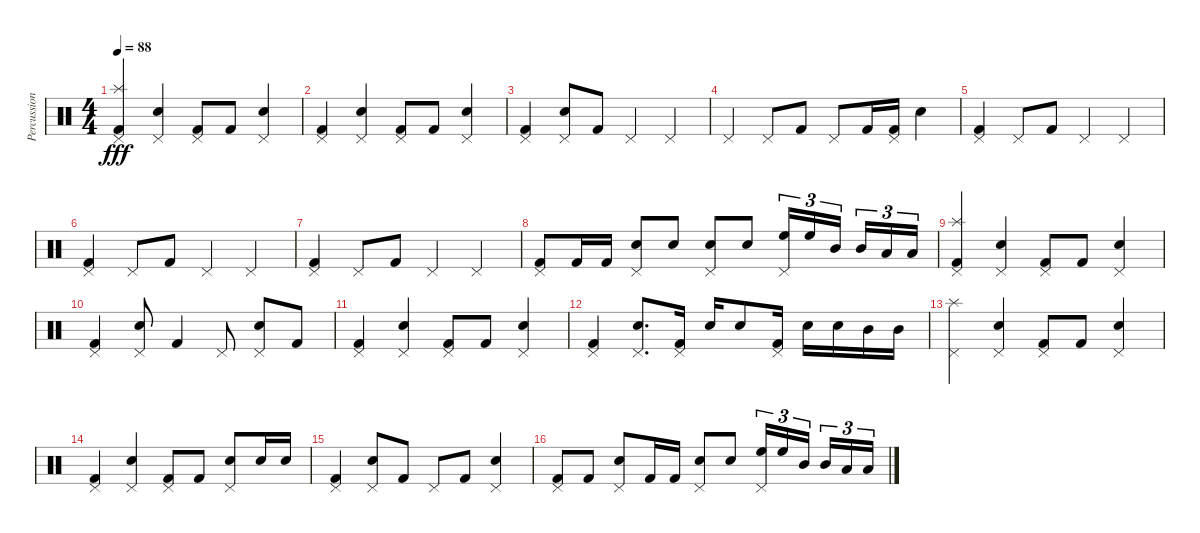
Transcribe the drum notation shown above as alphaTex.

\track ("Percussion" "Percussion") {instrument percussion}
\staff {score}
\articulation defaults
\ts (4 4)
\tempo 88
\clef neutral
\ks c
("Pedal Hi-Hat (hit)" "Splash (hit)" "Kick (hit) 2").4{dy fff} ("Pedal Hi-Hat (hit)" "Snare (hit) 2").4 ("Pedal Hi-Hat (hit)" "Kick (hit) 2").8 "Kick (hit) 2".8 ("Pedal Hi-Hat (hit)" "Snare (hit) 2").4 |
("Pedal Hi-Hat (hit)" "Kick (hit) 2").4 ("Pedal Hi-Hat (hit)" "Snare (hit) 2").4 ("Pedal Hi-Hat (hit)" "Kick (hit) 2").8 "Kick (hit) 2".8 ("Pedal Hi-Hat (hit)" "Snare (hit) 2").4 |
("Pedal Hi-Hat (hit)" "Kick (hit) 2").4 ("Pedal Hi-Hat (hit)" "Snare (hit) 2").8 "Kick (hit) 2".8 "Pedal Hi-Hat (hit)".4 "Pedal Hi-Hat (hit)".4 |
"Pedal Hi-Hat (hit)".4 "Pedal Hi-Hat (hit)".8 "Kick (hit) 2".8 "Pedal Hi-Hat (hit)".8 "Kick (hit) 2".16 ("Pedal Hi-Hat (hit)" "Kick (hit) 2").16 "Snare (hit) 2".4 |
("Pedal Hi-Hat (hit)" "Kick (hit) 2").4 "Pedal Hi-Hat (hit)".8 "Kick (hit) 2".8 "Pedal Hi-Hat (hit)".4 "Pedal Hi-Hat (hit)".4 |
("Pedal Hi-Hat (hit)" "Kick (hit) 2").4 "Pedal Hi-Hat (hit)".8 "Kick (hit) 2".8 "Pedal Hi-Hat (hit)".4 "Pedal Hi-Hat (hit)".4 |
("Pedal Hi-Hat (hit)" "Kick (hit) 2").4 "Pedal Hi-Hat (hit)".8 "Kick (hit) 2".8 "Pedal Hi-Hat (hit)".4 "Pedal Hi-Hat (hit)".4 |
("Pedal Hi-Hat (hit)" "Kick (hit) 2").8 "Kick (hit) 2".16 "Kick (hit) 2".16 ("Pedal Hi-Hat (hit)" "Snare (hit) 2").8 "Snare (hit) 2".8 ("Pedal Hi-Hat (hit)" "Snare (hit) 2").8 "Snare (hit) 2".8 ("Pedal Hi-Hat (hit)" "High Floor Tom (hit)").16{tu (3 2)} "High Floor Tom (hit)".16{tu (3 2)} "Mid Tom (hit)".16{tu (3 2) beam splitsecondary} "Mid Tom (hit)".16{tu (3 2)} "Low Tom (hit)".16{tu (3 2)} "Low Tom (hit)".16{tu (3 2)} |
("Pedal Hi-Hat (hit)" "Splash (hit)" "Kick (hit) 2").4 ("Pedal Hi-Hat (hit)" "Snare (hit) 2").4 ("Pedal Hi-Hat (hit)" "Kick (hit) 2").8 "Kick (hit) 2".8 ("Pedal Hi-Hat (hit)" "Snare (hit) 2").4 |
("Pedal Hi-Hat (hit)" "Kick (hit) 2").4 ("Pedal Hi-Hat (hit)" "Snare (hit) 2").8 "Kick (hit) 2".4 "Pedal Hi-Hat (hit)".8 ("Pedal Hi-Hat (hit)" "Snare (hit) 2").8 "Kick (hit) 2".8 |
("Pedal Hi-Hat (hit)" "Kick (hit) 2").4 ("Pedal Hi-Hat (hit)" "Snare (hit) 2").4 ("Pedal Hi-Hat (hit)" "Kick (hit) 2").8 "Kick (hit) 2".8 ("Pedal Hi-Hat (hit)" "Snare (hit) 2").4 |
("Pedal Hi-Hat (hit)" "Kick (hit) 2").4 ("Pedal Hi-Hat (hit)" "Snare (hit) 2").8{d} ("Pedal Hi-Hat (hit)" "Kick (hit) 2").16 "Snare (hit) 2".16 "Snare (hit) 2".8 ("Pedal Hi-Hat (hit)" "Kick (hit) 2").16 "Snare (hit) 2".16 "Snare (hit) 2".16 "Mid Tom (hit)".16 "Mid Tom (hit)".16 |
("Pedal Hi-Hat (hit)" "Splash (hit)").4 ("Pedal Hi-Hat (hit)" "Snare (hit) 2").4 ("Pedal Hi-Hat (hit)" "Kick (hit) 2").8 "Kick (hit) 2".8 ("Pedal Hi-Hat (hit)" "Snare (hit) 2").4 |
("Pedal Hi-Hat (hit)" "Kick (hit) 2").4 ("Pedal Hi-Hat (hit)" "Snare (hit) 2").4 ("Pedal Hi-Hat (hit)" "Kick (hit) 2").8 "Kick (hit) 2".8 ("Pedal Hi-Hat (hit)" "Snare (hit) 2").8 "Snare (hit) 2".16 "Snare (hit) 2".16 |
("Pedal Hi-Hat (hit)" "Kick (hit) 2").4 ("Pedal Hi-Hat (hit)" "Snare (hit) 2").8 "Kick (hit) 2".8 "Pedal Hi-Hat (hit)".8 "Kick (hit) 2".8 ("Pedal Hi-Hat (hit)" "Snare (hit) 2").4 |
("Pedal Hi-Hat (hit)" "Kick (hit) 2").8 "Kick (hit) 2".8 ("Pedal Hi-Hat (hit)" "Snare (hit) 2").8 "Kick (hit) 2".16 "Kick (hit) 2".16 ("Pedal Hi-Hat (hit)" "Snare (hit) 2").8 "Snare (hit) 2".8 ("Pedal Hi-Hat (hit)" "High Floor Tom (hit)").16{tu (3 2)} "High Floor Tom (hit)".16{tu (3 2)} "Mid Tom (hit)".16{tu (3 2) beam splitsecondary} "Mid Tom (hit)".16{tu (3 2)} "Low Tom (hit)".16{tu (3 2)} "Low Tom (hit)".16{tu (3 2)}
